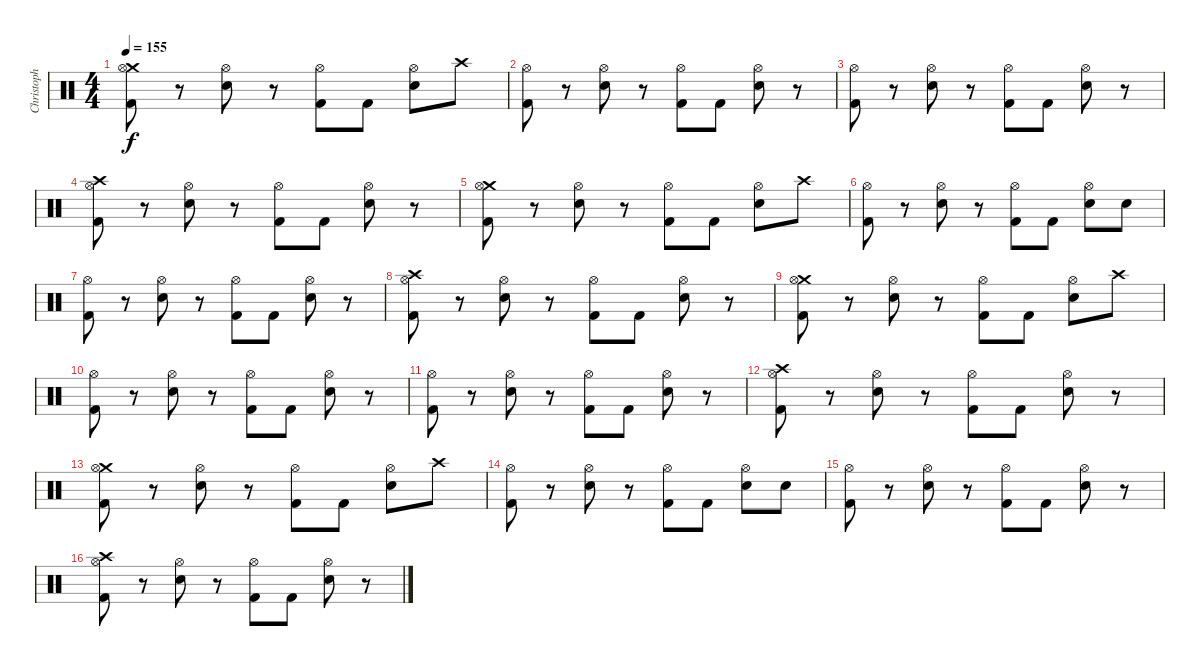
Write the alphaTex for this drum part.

\track ("Christoph \"Doom\" Schneider" "Christoph ") {instrument percussion}
\staff {score}
\articulation defaults
\ts (4 4)
\tempo 155
\clef neutral
\ks c
("Kick (hit) 2" "Crash medium (hit)" "Hi-Hat (open)").8{dy f} r.8 ("Electric Snare (hit)" "Hi-Hat (open)").8 r.8 ("Kick (hit) 2" "Hi-Hat (open)").8 "Kick (hit) 2".8 ("Electric Snare (hit)" "Hi-Hat (open)").8 "Crash high (hit)".8 |
("Kick (hit) 2" "Hi-Hat (open)").8 r.8 ("Electric Snare (hit)" "Hi-Hat (open)").8 r.8 ("Kick (hit) 2" "Hi-Hat (open)").8 "Kick (hit) 2".8 ("Electric Snare (hit)" "Hi-Hat (open)").8 r.8 |
("Kick (hit) 2" "Hi-Hat (open)").8 r.8 ("Electric Snare (hit)" "Hi-Hat (open)").8 r.8 ("Kick (hit) 2" "Hi-Hat (open)").8 "Kick (hit) 2".8 ("Electric Snare (hit)" "Hi-Hat (open)").8 r.8 |
("Kick (hit) 2" "Crash high (hit)" "Hi-Hat (open)").8 r.8 ("Electric Snare (hit)" "Hi-Hat (open)").8 r.8 ("Kick (hit) 2" "Hi-Hat (open)").8 "Kick (hit) 2".8 ("Electric Snare (hit)" "Hi-Hat (open)").8 r.8 |
("Kick (hit) 2" "Crash medium (hit)" "Hi-Hat (open)").8 r.8 ("Electric Snare (hit)" "Hi-Hat (open)").8 r.8 ("Kick (hit) 2" "Hi-Hat (open)").8 "Kick (hit) 2".8 ("Electric Snare (hit)" "Hi-Hat (open)").8 "Crash high (hit)".8 |
("Kick (hit) 2" "Hi-Hat (open)").8 r.8 ("Electric Snare (hit)" "Hi-Hat (open)").8 r.8 ("Kick (hit) 2" "Hi-Hat (open)").8 "Kick (hit) 2".8 ("Electric Snare (hit)" "Hi-Hat (open)").8 "Electric Snare (hit)".8 |
("Kick (hit) 2" "Hi-Hat (open)").8 r.8 ("Electric Snare (hit)" "Hi-Hat (open)").8 r.8 ("Kick (hit) 2" "Hi-Hat (open)").8 "Kick (hit) 2".8 ("Electric Snare (hit)" "Hi-Hat (open)").8 r.8 |
("Kick (hit) 2" "Crash high (hit)" "Hi-Hat (open)").8 r.8 ("Electric Snare (hit)" "Hi-Hat (open)").8 r.8 ("Kick (hit) 2" "Hi-Hat (open)").8 "Kick (hit) 2".8 ("Electric Snare (hit)" "Hi-Hat (open)").8 r.8 |
("Kick (hit) 2" "Crash medium (hit)" "Hi-Hat (open)").8 r.8 ("Electric Snare (hit)" "Hi-Hat (open)").8 r.8 ("Kick (hit) 2" "Hi-Hat (open)").8 "Kick (hit) 2".8 ("Electric Snare (hit)" "Hi-Hat (open)").8 "Crash high (hit)".8 |
("Kick (hit) 2" "Hi-Hat (open)").8 r.8 ("Electric Snare (hit)" "Hi-Hat (open)").8 r.8 ("Kick (hit) 2" "Hi-Hat (open)").8 "Kick (hit) 2".8 ("Electric Snare (hit)" "Hi-Hat (open)").8 r.8 |
("Kick (hit) 2" "Hi-Hat (open)").8 r.8 ("Electric Snare (hit)" "Hi-Hat (open)").8 r.8 ("Kick (hit) 2" "Hi-Hat (open)").8 "Kick (hit) 2".8 ("Electric Snare (hit)" "Hi-Hat (open)").8 r.8 |
("Kick (hit) 2" "Crash high (hit)" "Hi-Hat (open)").8 r.8 ("Electric Snare (hit)" "Hi-Hat (open)").8 r.8 ("Kick (hit) 2" "Hi-Hat (open)").8 "Kick (hit) 2".8 ("Electric Snare (hit)" "Hi-Hat (open)").8 r.8 |
("Kick (hit) 2" "Crash medium (hit)" "Hi-Hat (open)").8 r.8 ("Electric Snare (hit)" "Hi-Hat (open)").8 r.8 ("Kick (hit) 2" "Hi-Hat (open)").8 "Kick (hit) 2".8 ("Electric Snare (hit)" "Hi-Hat (open)").8 "Crash high (hit)".8 |
("Kick (hit) 2" "Hi-Hat (open)").8 r.8 ("Electric Snare (hit)" "Hi-Hat (open)").8 r.8 ("Kick (hit) 2" "Hi-Hat (open)").8 "Kick (hit) 2".8 ("Electric Snare (hit)" "Hi-Hat (open)").8 "Electric Snare (hit)".8 |
("Kick (hit) 2" "Hi-Hat (open)").8 r.8 ("Electric Snare (hit)" "Hi-Hat (open)").8 r.8 ("Kick (hit) 2" "Hi-Hat (open)").8 "Kick (hit) 2".8 ("Electric Snare (hit)" "Hi-Hat (open)").8 r.8 |
("Kick (hit) 2" "Crash high (hit)" "Hi-Hat (open)").8 r.8 ("Electric Snare (hit)" "Hi-Hat (open)").8 r.8 ("Kick (hit) 2" "Hi-Hat (open)").8 "Kick (hit) 2".8 ("Electric Snare (hit)" "Hi-Hat (open)").8 r.8
